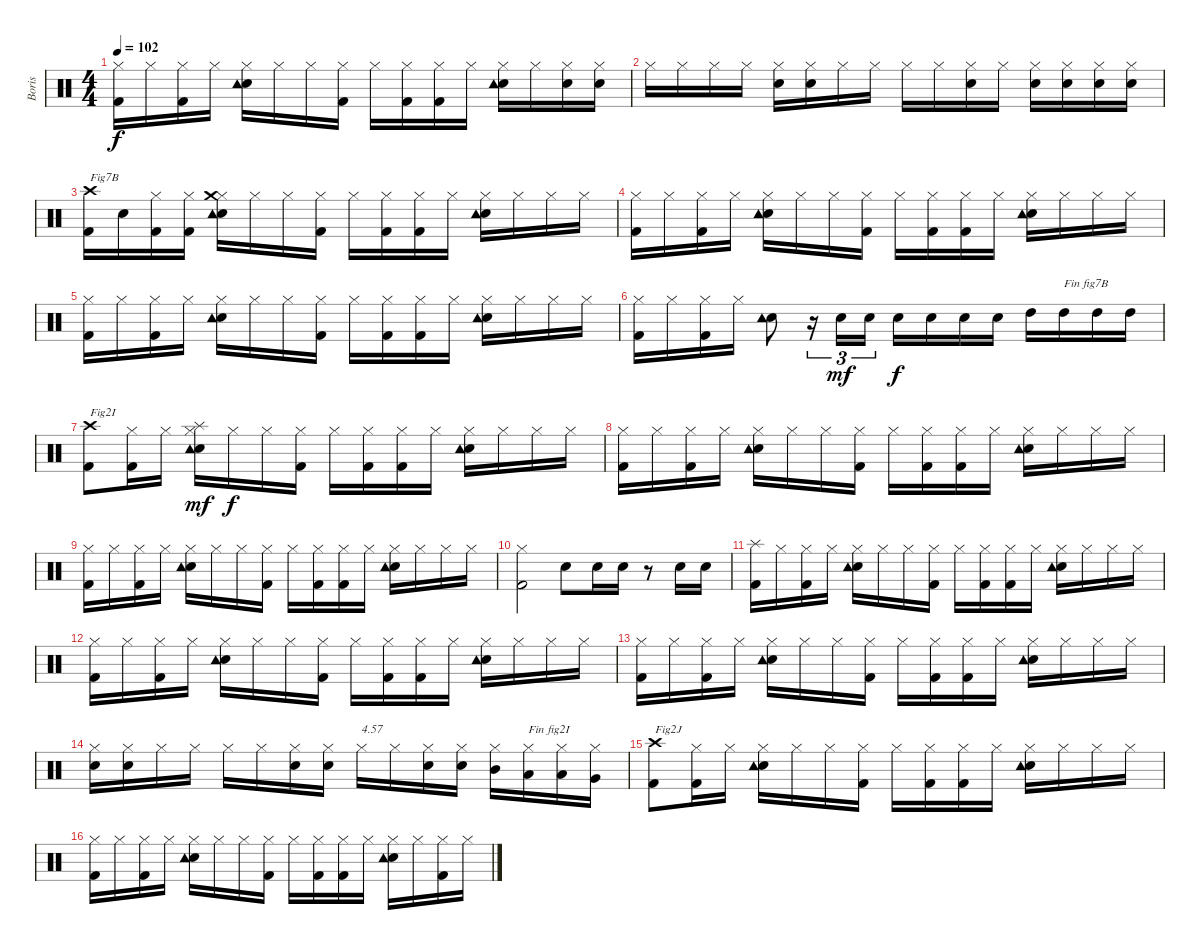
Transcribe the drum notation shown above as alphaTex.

\track ("Boris" "Boris") {instrument percussion}
\staff {score}
\articulation defaults
\ts (4 4)
\tempo 102
\clef neutral
\ks c
("Kick (hit) 2" "Hi-Hat (closed)").16{dy f} "Hi-Hat (closed)".16 ("Kick (hit) 2" "Hi-Hat (closed)").16 "Hi-Hat (closed)".16 ("Electric Snare (hit)" "Tambourine (hit)" "Hi-Hat (closed)").16 "Hi-Hat (closed)".16 "Hi-Hat (closed)".16 ("Kick (hit) 2" "Hi-Hat (closed)").16 "Hi-Hat (closed)".16 ("Kick (hit) 2" "Hi-Hat (closed)").16 ("Kick (hit) 2" "Hi-Hat (closed)").16 "Hi-Hat (closed)".16 ("Electric Snare (hit)" "Tambourine (hit)" "Hi-Hat (closed)").16 "Hi-Hat (closed)".16 ("Electric Snare (hit)" "Hi-Hat (closed)").16 ("Electric Snare (hit)" "Hi-Hat (closed)").16 |
"Hi-Hat (closed)".16 "Hi-Hat (closed)".16 "Hi-Hat (closed)".16 "Hi-Hat (closed)".16 ("Electric Snare (hit)" "Hi-Hat (closed)").16 ("Electric Snare (hit)" "Hi-Hat (closed)").16 "Hi-Hat (closed)".16 "Hi-Hat (closed)".16 "Hi-Hat (closed)".16 "Hi-Hat (closed)".16 ("Electric Snare (hit)" "Hi-Hat (closed)").16 "Hi-Hat (closed)".16 ("Electric Snare (hit)" "Hi-Hat (closed)").16 ("Electric Snare (hit)" "Hi-Hat (closed)").16 ("Electric Snare (hit)" "Hi-Hat (closed)").16 ("Electric Snare (hit)" "Hi-Hat (closed)").16 |
("Kick (hit) 2" "Crash high (hit)").16{txt "Fig7B"} "Electric Snare (hit)".16 ("Kick (hit) 2" "Hi-Hat (closed)").16 ("Kick (hit) 2" "Hi-Hat (closed)").16 ("Electric Snare (hit)" "Tambourine (hit)" "Hi-Hat (closed)" "Crash medium (hit)").16 "Hi-Hat (closed)".16 "Hi-Hat (closed)".16 ("Kick (hit) 2" "Hi-Hat (closed)").16 "Hi-Hat (closed)".16 ("Kick (hit) 2" "Hi-Hat (closed)").16 ("Kick (hit) 2" "Hi-Hat (closed)").16 "Hi-Hat (closed)".16 ("Electric Snare (hit)" "Tambourine (hit)" "Hi-Hat (closed)").16 "Hi-Hat (closed)".16 "Hi-Hat (closed)".16 "Hi-Hat (closed)".16 |
("Kick (hit) 2" "Hi-Hat (closed)").16 "Hi-Hat (closed)".16 ("Kick (hit) 2" "Hi-Hat (closed)").16 "Hi-Hat (closed)".16 ("Electric Snare (hit)" "Tambourine (hit)" "Hi-Hat (closed)").16 "Hi-Hat (closed)".16 "Hi-Hat (closed)".16 ("Kick (hit) 2" "Hi-Hat (closed)").16 "Hi-Hat (closed)".16 ("Kick (hit) 2" "Hi-Hat (closed)").16 ("Kick (hit) 2" "Hi-Hat (closed)").16 "Hi-Hat (closed)".16 ("Electric Snare (hit)" "Tambourine (hit)" "Hi-Hat (closed)").16 "Hi-Hat (closed)".16 "Hi-Hat (closed)".16 "Hi-Hat (closed)".16 |
("Kick (hit) 2" "Hi-Hat (closed)").16 "Hi-Hat (closed)".16 ("Kick (hit) 2" "Hi-Hat (closed)").16 "Hi-Hat (closed)".16 ("Electric Snare (hit)" "Tambourine (hit)" "Hi-Hat (closed)").16 "Hi-Hat (closed)".16 "Hi-Hat (closed)".16 ("Kick (hit) 2" "Hi-Hat (closed)").16 "Hi-Hat (closed)".16 ("Kick (hit) 2" "Hi-Hat (closed)").16 ("Kick (hit) 2" "Hi-Hat (closed)").16 "Hi-Hat (closed)".16 ("Electric Snare (hit)" "Tambourine (hit)" "Hi-Hat (closed)").16 "Hi-Hat (closed)".16 "Hi-Hat (closed)".16 "Hi-Hat (closed)".16 |
("Kick (hit) 2" "Hi-Hat (closed)").16 "Hi-Hat (closed)".16 ("Kick (hit) 2" "Hi-Hat (closed)").16 "Hi-Hat (closed)".16 ("Electric Snare (hit)" "Tambourine (hit)").8 r.16{tu (3 2)} "Electric Snare (hit)".16{tu (3 2) dy mf} "Electric Snare (hit)".16{tu (3 2)} "Electric Snare (hit)".16{dy f} "Electric Snare (hit)".16 "Electric Snare (hit)".16 "Electric Snare (hit)".16 "High Tom (hit)".16 "High Tom (hit)".16{txt "Fin fig7B"} "High Tom (hit)".16 "High Tom (hit)".16 |
("Kick (hit) 2" "Crash high (hit)").8{txt "Fig2I"} ("Kick (hit) 2" "Hi-Hat (closed)").16 "Hi-Hat (closed)".16 ("Electric Snare (hit)" "Tambourine (hit)" "Hi-Hat (closed)" "Splash (hit)").16{dy mf} "Hi-Hat (closed)".16{dy f} "Hi-Hat (closed)".16 ("Kick (hit) 2" "Hi-Hat (closed)").16 "Hi-Hat (closed)".16 ("Kick (hit) 2" "Hi-Hat (closed)").16 ("Kick (hit) 2" "Hi-Hat (closed)").16 "Hi-Hat (closed)".16 ("Electric Snare (hit)" "Tambourine (hit)" "Hi-Hat (closed)").16 "Hi-Hat (closed)".16 "Hi-Hat (closed)".16 "Hi-Hat (closed)".16 |
("Kick (hit) 2" "Hi-Hat (closed)").16 "Hi-Hat (closed)".16 ("Kick (hit) 2" "Hi-Hat (closed)").16 "Hi-Hat (closed)".16 ("Electric Snare (hit)" "Tambourine (hit)" "Hi-Hat (closed)").16 "Hi-Hat (closed)".16 "Hi-Hat (closed)".16 ("Kick (hit) 2" "Hi-Hat (closed)").16 "Hi-Hat (closed)".16 ("Kick (hit) 2" "Hi-Hat (closed)").16 ("Kick (hit) 2" "Hi-Hat (closed)").16 "Hi-Hat (closed)".16 ("Electric Snare (hit)" "Tambourine (hit)" "Hi-Hat (closed)").16 "Hi-Hat (closed)".16 "Hi-Hat (closed)".16 "Hi-Hat (closed)".16 |
("Kick (hit) 2" "Hi-Hat (closed)").16 "Hi-Hat (closed)".16 ("Kick (hit) 2" "Hi-Hat (closed)").16 "Hi-Hat (closed)".16 ("Electric Snare (hit)" "Tambourine (hit)" "Hi-Hat (closed)").16 "Hi-Hat (closed)".16 "Hi-Hat (closed)".16 ("Kick (hit) 2" "Hi-Hat (closed)").16 "Hi-Hat (closed)".16 ("Kick (hit) 2" "Hi-Hat (closed)").16 ("Kick (hit) 2" "Hi-Hat (closed)").16 "Hi-Hat (closed)".16 ("Electric Snare (hit)" "Tambourine (hit)" "Hi-Hat (closed)").16 "Hi-Hat (closed)".16 "Hi-Hat (closed)".16 "Hi-Hat (closed)".16 |
("Kick (hit) 2" "Hi-Hat (closed)").2 "Electric Snare (hit)".8 "Electric Snare (hit)".16 "Electric Snare (hit)".16 r.8 "Electric Snare (hit)".16 "Electric Snare (hit)".16 |
("Kick (hit) 2" "Splash (hit)").16 "Hi-Hat (closed)".16 ("Kick (hit) 2" "Hi-Hat (closed)").16 "Hi-Hat (closed)".16 ("Electric Snare (hit)" "Tambourine (hit)" "Hi-Hat (closed)").16 "Hi-Hat (closed)".16 "Hi-Hat (closed)".16 ("Kick (hit) 2" "Hi-Hat (closed)").16 "Hi-Hat (closed)".16 ("Kick (hit) 2" "Hi-Hat (closed)").16 ("Kick (hit) 2" "Hi-Hat (closed)").16 "Hi-Hat (closed)".16 ("Electric Snare (hit)" "Tambourine (hit)" "Hi-Hat (closed)").16 "Hi-Hat (closed)".16 "Hi-Hat (closed)".16 "Hi-Hat (closed)".16 |
("Kick (hit) 2" "Hi-Hat (closed)").16 "Hi-Hat (closed)".16 ("Kick (hit) 2" "Hi-Hat (closed)").16 "Hi-Hat (closed)".16 ("Electric Snare (hit)" "Tambourine (hit)" "Hi-Hat (closed)").16 "Hi-Hat (closed)".16 "Hi-Hat (closed)".16 ("Kick (hit) 2" "Hi-Hat (closed)").16 "Hi-Hat (closed)".16 ("Kick (hit) 2" "Hi-Hat (closed)").16 ("Kick (hit) 2" "Hi-Hat (closed)").16 "Hi-Hat (closed)".16 ("Electric Snare (hit)" "Tambourine (hit)" "Hi-Hat (closed)").16 "Hi-Hat (closed)".16 "Hi-Hat (closed)".16 "Hi-Hat (closed)".16 |
("Kick (hit) 2" "Hi-Hat (closed)").16 "Hi-Hat (closed)".16 ("Kick (hit) 2" "Hi-Hat (closed)").16 "Hi-Hat (closed)".16 ("Electric Snare (hit)" "Tambourine (hit)" "Hi-Hat (closed)").16 "Hi-Hat (closed)".16 "Hi-Hat (closed)".16 ("Kick (hit) 2" "Hi-Hat (closed)").16 "Hi-Hat (closed)".16 ("Kick (hit) 2" "Hi-Hat (closed)").16 ("Kick (hit) 2" "Hi-Hat (closed)").16 "Hi-Hat (closed)".16 ("Electric Snare (hit)" "Tambourine (hit)" "Hi-Hat (closed)").16 "Hi-Hat (closed)".16 "Hi-Hat (closed)".16 "Hi-Hat (closed)".16 |
("Electric Snare (hit)" "Hi-Hat (closed)").16 ("Electric Snare (hit)" "Hi-Hat (closed)").16 "Hi-Hat (closed)".16 "Hi-Hat (closed)".16 "Hi-Hat (closed)".16 "Hi-Hat (closed)".16 ("Electric Snare (hit)" "Hi-Hat (closed)").16 ("Electric Snare (hit)" "Hi-Hat (closed)").16 "Hi-Hat (closed)".16{txt "4.57"} "Hi-Hat (closed)".16 ("Electric Snare (hit)" "Hi-Hat (closed)").16 ("Electric Snare (hit)" "Hi-Hat (closed)").16 ("Mid Tom (hit)" "Hi-Hat (closed)").16 ("Low Tom (hit)" "Hi-Hat (closed)").16{txt "Fin fig2I"} ("Low Tom (hit)" "Hi-Hat (closed)").16 ("Very Low Tom (hit)" "Hi-Hat (closed)").16 |
("Kick (hit) 2" "Crash high (hit)").8{txt "Fig2J"} ("Kick (hit) 2" "Hi-Hat (closed)").16 "Hi-Hat (closed)".16 ("Electric Snare (hit)" "Tambourine (hit)" "Hi-Hat (closed)").16 "Hi-Hat (closed)".16 "Hi-Hat (closed)".16 ("Kick (hit) 2" "Hi-Hat (closed)").16 "Hi-Hat (closed)".16 ("Kick (hit) 2" "Hi-Hat (closed)").16 ("Kick (hit) 2" "Hi-Hat (closed)").16 "Hi-Hat (closed)".16 ("Electric Snare (hit)" "Tambourine (hit)" "Hi-Hat (closed)").16 "Hi-Hat (closed)".16 "Hi-Hat (closed)".16 "Hi-Hat (closed)".16 |
("Kick (hit) 2" "Hi-Hat (closed)").16 "Hi-Hat (closed)".16 ("Kick (hit) 2" "Hi-Hat (closed)").16 "Hi-Hat (closed)".16 ("Electric Snare (hit)" "Tambourine (hit)" "Hi-Hat (closed)").16 "Hi-Hat (closed)".16 "Hi-Hat (closed)".16 ("Kick (hit) 2" "Hi-Hat (closed)").16 "Hi-Hat (closed)".16 ("Kick (hit) 2" "Hi-Hat (closed)").16 ("Kick (hit) 2" "Hi-Hat (closed)").16 "Hi-Hat (closed)".16 ("Electric Snare (hit)" "Tambourine (hit)" "Hi-Hat (closed)").16 "Hi-Hat (closed)".16 ("Kick (hit) 2" "Hi-Hat (closed)").16 "Hi-Hat (closed)".16
